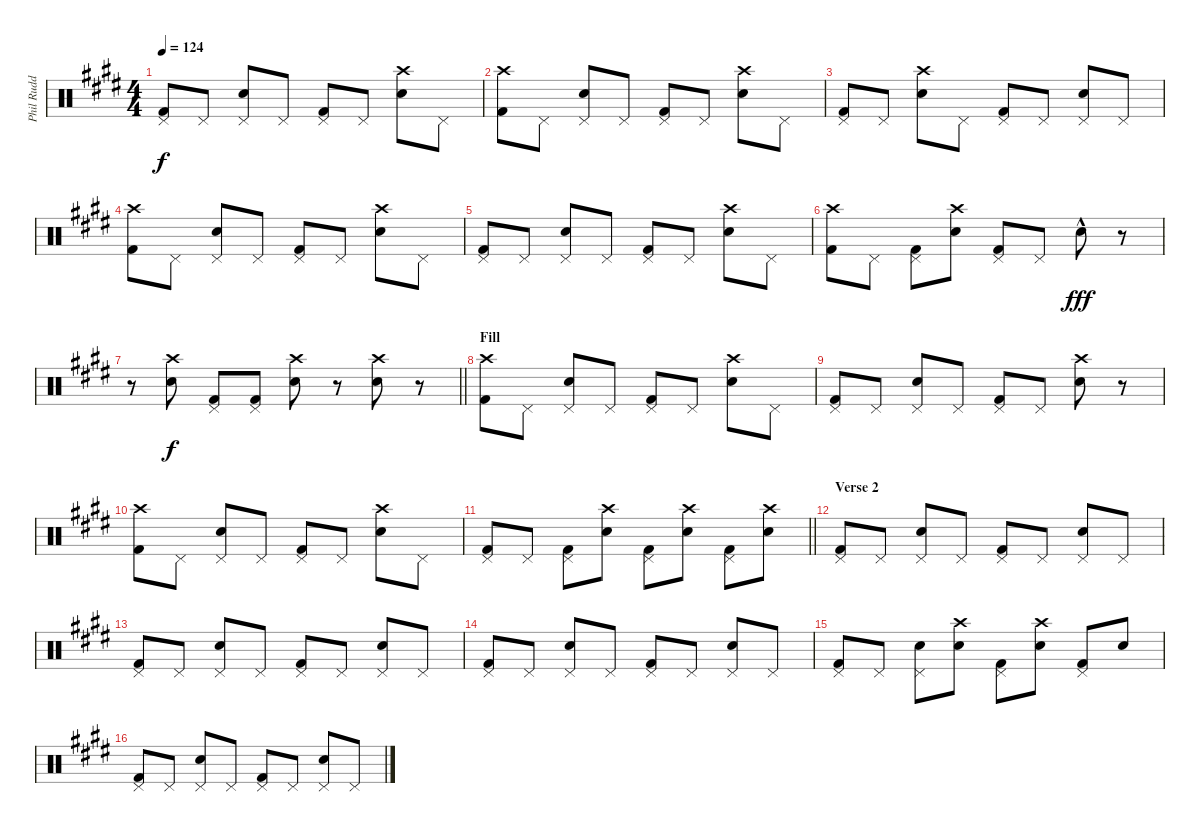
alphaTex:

\track ("Phil Rudd (Drums)" "Phil Rudd ") {instrument percussion}
\staff {score}
\articulation defaults
\ts (4 4)
\tempo 124
\clef neutral
\ks e
("Pedal Hi-Hat (hit)" "Kick (hit) 2").8{dy f} "Pedal Hi-Hat (hit)".8 ("Pedal Hi-Hat (hit)" "Snare (hit) 2").8 "Pedal Hi-Hat (hit)".8 ("Pedal Hi-Hat (hit)" "Kick (hit) 2").8 "Pedal Hi-Hat (hit)".8 ("Crash high (hit)" "Snare (hit) 2").8 "Pedal Hi-Hat (hit)".8 |
("Crash high (hit)" "Kick (hit) 2").8 "Pedal Hi-Hat (hit)".8 ("Pedal Hi-Hat (hit)" "Snare (hit) 2").8 "Pedal Hi-Hat (hit)".8 ("Pedal Hi-Hat (hit)" "Kick (hit) 2").8 "Pedal Hi-Hat (hit)".8 ("Crash high (hit)" "Snare (hit) 2").8 "Pedal Hi-Hat (hit)".8 |
("Pedal Hi-Hat (hit)" "Kick (hit) 2").8 "Pedal Hi-Hat (hit)".8 ("Crash high (hit)" "Snare (hit) 2").8 "Pedal Hi-Hat (hit)".8 ("Pedal Hi-Hat (hit)" "Kick (hit) 2").8 "Pedal Hi-Hat (hit)".8 ("Pedal Hi-Hat (hit)" "Snare (hit) 2").8 "Pedal Hi-Hat (hit)".8 |
("Crash high (hit)" "Kick (hit) 2").8 "Pedal Hi-Hat (hit)".8 ("Pedal Hi-Hat (hit)" "Snare (hit) 2").8 "Pedal Hi-Hat (hit)".8 ("Pedal Hi-Hat (hit)" "Kick (hit) 2").8 "Pedal Hi-Hat (hit)".8 ("Crash high (hit)" "Snare (hit) 2").8 "Pedal Hi-Hat (hit)".8 |
("Pedal Hi-Hat (hit)" "Kick (hit) 2").8 "Pedal Hi-Hat (hit)".8 ("Pedal Hi-Hat (hit)" "Snare (hit) 2").8 "Pedal Hi-Hat (hit)".8 ("Pedal Hi-Hat (hit)" "Kick (hit) 2").8 "Pedal Hi-Hat (hit)".8 ("Crash high (hit)" "Snare (hit) 2").8 "Pedal Hi-Hat (hit)".8 |
("Crash high (hit)" "Kick (hit) 2").8 "Pedal Hi-Hat (hit)".8 ("Pedal Hi-Hat (hit)" "Kick (hit) 2").8 ("Crash high (hit)" "Snare (hit) 2").8 ("Pedal Hi-Hat (hit)" "Kick (hit) 2").8 "Pedal Hi-Hat (hit)".8 "Electric Snare (hit)"{hac}.8{dy fff} r.8 |
\barLineRight lightlight
r.8 ("Crash high (hit)" "Snare (hit) 2").8{dy f} ("Pedal Hi-Hat (hit)" "Kick (hit) 2").8 ("Pedal Hi-Hat (hit)" "Kick (hit) 2").8 ("Crash high (hit)" "Snare (hit) 2").8 r.8 ("Crash high (hit)" "Snare (hit) 2").8 r.8 |
\section ("" "Fill")
("Crash high (hit)" "Kick (hit) 2").8 "Pedal Hi-Hat (hit)".8 ("Pedal Hi-Hat (hit)" "Snare (hit) 2").8 "Pedal Hi-Hat (hit)".8 ("Pedal Hi-Hat (hit)" "Kick (hit) 2").8 "Pedal Hi-Hat (hit)".8 ("Crash high (hit)" "Snare (hit) 2").8 "Pedal Hi-Hat (hit)".8 |
("Pedal Hi-Hat (hit)" "Kick (hit) 2").8 "Pedal Hi-Hat (hit)".8 ("Pedal Hi-Hat (hit)" "Snare (hit) 2").8 "Pedal Hi-Hat (hit)".8 ("Pedal Hi-Hat (hit)" "Kick (hit) 2").8 "Pedal Hi-Hat (hit)".8 ("Crash high (hit)" "Snare (hit) 2").8 r.8 |
("Crash high (hit)" "Kick (hit) 2").8 "Pedal Hi-Hat (hit)".8 ("Pedal Hi-Hat (hit)" "Snare (hit) 2").8 "Pedal Hi-Hat (hit)".8 ("Pedal Hi-Hat (hit)" "Kick (hit) 2").8 "Pedal Hi-Hat (hit)".8 ("Crash high (hit)" "Snare (hit) 2").8 "Pedal Hi-Hat (hit)".8 |
\barLineRight lightlight
("Pedal Hi-Hat (hit)" "Kick (hit) 2").8 "Pedal Hi-Hat (hit)".8 ("Pedal Hi-Hat (hit)" "Kick (hit) 2").8 ("Crash high (hit)" "Snare (hit) 2").8 ("Pedal Hi-Hat (hit)" "Kick (hit) 2").8 ("Crash high (hit)" "Snare (hit) 2").8 ("Pedal Hi-Hat (hit)" "Kick (hit) 2").8 ("Crash high (hit)" "Snare (hit) 2").8 |
\section ("" "Verse 2")
("Pedal Hi-Hat (hit)" "Kick (hit) 2").8 "Pedal Hi-Hat (hit)".8 ("Pedal Hi-Hat (hit)" "Snare (hit) 2").8 "Pedal Hi-Hat (hit)".8 ("Pedal Hi-Hat (hit)" "Kick (hit) 2").8 "Pedal Hi-Hat (hit)".8 ("Pedal Hi-Hat (hit)" "Snare (hit) 2").8 "Pedal Hi-Hat (hit)".8 |
("Pedal Hi-Hat (hit)" "Kick (hit) 2").8 "Pedal Hi-Hat (hit)".8 ("Pedal Hi-Hat (hit)" "Snare (hit) 2").8 "Pedal Hi-Hat (hit)".8 ("Pedal Hi-Hat (hit)" "Kick (hit) 2").8 "Pedal Hi-Hat (hit)".8 ("Pedal Hi-Hat (hit)" "Snare (hit) 2").8 "Pedal Hi-Hat (hit)".8 |
("Pedal Hi-Hat (hit)" "Kick (hit) 2").8 "Pedal Hi-Hat (hit)".8 ("Pedal Hi-Hat (hit)" "Snare (hit) 2").8 "Pedal Hi-Hat (hit)".8 ("Pedal Hi-Hat (hit)" "Kick (hit) 2").8 "Pedal Hi-Hat (hit)".8 ("Pedal Hi-Hat (hit)" "Snare (hit) 2").8 "Pedal Hi-Hat (hit)".8 |
("Pedal Hi-Hat (hit)" "Kick (hit) 2").8 "Pedal Hi-Hat (hit)".8 ("Pedal Hi-Hat (hit)" "Snare (hit) 2").8 ("Crash high (hit)" "Snare (hit) 2").8 ("Pedal Hi-Hat (hit)" "Kick (hit) 2").8 ("Crash high (hit)" "Snare (hit) 2").8 ("Pedal Hi-Hat (hit)" "Kick (hit) 2").8 "Snare (hit) 2".8 |
("Pedal Hi-Hat (hit)" "Kick (hit) 2").8 "Pedal Hi-Hat (hit)".8 ("Pedal Hi-Hat (hit)" "Snare (hit) 2").8 "Pedal Hi-Hat (hit)".8 ("Pedal Hi-Hat (hit)" "Kick (hit) 2").8 "Pedal Hi-Hat (hit)".8 ("Pedal Hi-Hat (hit)" "Snare (hit) 2").8 "Pedal Hi-Hat (hit)".8
